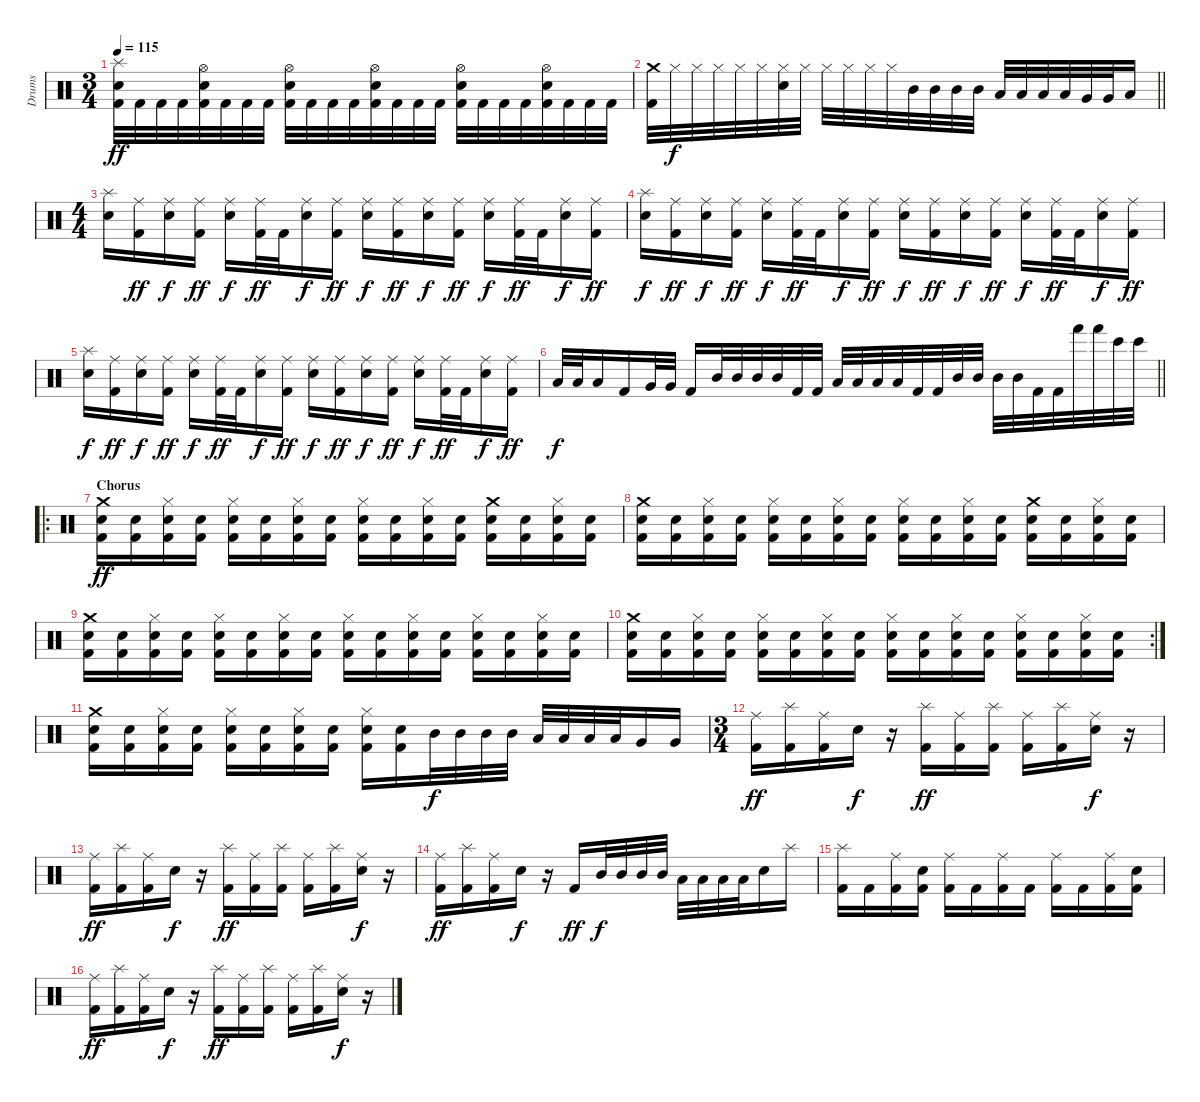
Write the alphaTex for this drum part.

\track ("Drums" "Drums") {instrument percussion}
\staff {score}
\articulation defaults
\ts (3 4)
\tempo 115
\clef neutral
\ks c
("Splash (hit)" "Electric Snare (hit)" "Kick (hit) 2").32{dy ff} "Kick (hit) 2".32 "Kick (hit) 2".32 "Kick (hit) 2".32 ("Hi-Hat (open)" "Electric Snare (hit)" "Kick (hit) 2").32 "Kick (hit) 2".32 "Kick (hit) 2".32 "Kick (hit) 2".32 ("Hi-Hat (open)" "Electric Snare (hit)" "Kick (hit) 2").32 "Kick (hit) 2".32 "Kick (hit) 2".32 "Kick (hit) 2".32 ("Hi-Hat (open)" "Electric Snare (hit)" "Kick (hit) 2").32 "Kick (hit) 2".32 "Kick (hit) 2".32 "Kick (hit) 2".32 ("Hi-Hat (open)" "Electric Snare (hit)" "Kick (hit) 2").32 "Kick (hit) 2".32 "Kick (hit) 2".32 "Kick (hit) 2".32 ("Hi-Hat (open)" "Electric Snare (hit)" "Kick (hit) 2").32 "Kick (hit) 2".32 "Kick (hit) 2".32 "Kick (hit) 2".32 |
\barLineRight lightlight
("Crash medium (hit)" "Kick (hit) 2").32 "Hi-Hat (closed)".32{dy f} "Hi-Hat (closed)".32 "Hi-Hat (closed)".32 "Hi-Hat (closed)".32 "Hi-Hat (closed)".32 ("Hi-Hat (closed)" "Electric Snare (hit)").32 "Hi-Hat (closed)".32 "Hi-Hat (closed)".32 "Hi-Hat (closed)".32 "Hi-Hat (closed)".32 "Hi-Hat (closed)".32 "Mid Tom (hit)".32 "Mid Tom (hit)".32 "Mid Tom (hit)".32 "Mid Tom (hit)".32 "Low Tom (hit)".32 "Low Tom (hit)".32 "Low Tom (hit)".32 "Low Tom (hit)".32 "Very Low Tom (hit)".32 "Very Low Tom (hit)".32 "Low Floor Tom (hit)".16 |
\ts (4 4)
("Splash (hit)" "Electric Snare (hit)").16 ("Ride (middle)" "Kick (hit) 2").16{dy ff} ("Ride (middle)" "Electric Snare (hit)").16{dy f} ("Ride (middle)" "Kick (hit) 2").16{dy ff} ("Ride (middle)" "Electric Snare (hit)").16{dy f} ("Ride (middle)" "Kick (hit) 2").32{dy ff} "Kick (hit) 2".32 ("Ride (middle)" "Electric Snare (hit)").16{dy f} ("Ride (middle)" "Kick (hit) 2").16{dy ff} ("Ride (middle)" "Electric Snare (hit)").16{dy f} ("Ride (middle)" "Kick (hit) 2").16{dy ff} ("Ride (middle)" "Electric Snare (hit)").16{dy f} ("Ride (middle)" "Kick (hit) 2").16{dy ff} ("Ride (middle)" "Electric Snare (hit)").16{dy f} ("Ride (middle)" "Kick (hit) 2").32{dy ff} "Kick (hit) 2".32 ("Ride (middle)" "Electric Snare (hit)").16{dy f} ("Ride (middle)" "Kick (hit) 2").16{dy ff} |
("Splash (hit)" "Electric Snare (hit)").16{dy f} ("Ride (middle)" "Kick (hit) 2").16{dy ff} ("Ride (middle)" "Electric Snare (hit)").16{dy f} ("Ride (middle)" "Kick (hit) 2").16{dy ff} ("Ride (middle)" "Electric Snare (hit)").16{dy f} ("Ride (middle)" "Kick (hit) 2").32{dy ff} "Kick (hit) 2".32 ("Ride (middle)" "Electric Snare (hit)").16{dy f} ("Ride (middle)" "Kick (hit) 2").16{dy ff} ("Ride (middle)" "Electric Snare (hit)").16{dy f} ("Ride (middle)" "Kick (hit) 2").16{dy ff} ("Ride (middle)" "Electric Snare (hit)").16{dy f} ("Ride (middle)" "Kick (hit) 2").16{dy ff} ("Ride (middle)" "Electric Snare (hit)").16{dy f} ("Ride (middle)" "Kick (hit) 2").32{dy ff} "Kick (hit) 2".32 ("Ride (middle)" "Electric Snare (hit)").16{dy f} ("Ride (middle)" "Kick (hit) 2").16{dy ff} |
("Splash (hit)" "Electric Snare (hit)").16{dy f} ("Ride (middle)" "Kick (hit) 2").16{dy ff} ("Ride (middle)" "Electric Snare (hit)").16{dy f} ("Ride (middle)" "Kick (hit) 2").16{dy ff} ("Ride (middle)" "Electric Snare (hit)").16{dy f} ("Ride (middle)" "Kick (hit) 2").32{dy ff} "Kick (hit) 2".32 ("Ride (middle)" "Electric Snare (hit)").16{dy f} ("Ride (middle)" "Kick (hit) 2").16{dy ff} ("Ride (middle)" "Electric Snare (hit)").16{dy f} ("Ride (middle)" "Kick (hit) 2").16{dy ff} ("Ride (middle)" "Electric Snare (hit)").16{dy f} ("Ride (middle)" "Kick (hit) 2").16{dy ff} ("Ride (middle)" "Electric Snare (hit)").16{dy f} ("Ride (middle)" "Kick (hit) 2").32{dy ff} "Kick (hit) 2".32 ("Ride (middle)" "Electric Snare (hit)").16{dy f} ("Ride (middle)" "Kick (hit) 2").16{dy ff} |
\barLineRight lightlight "Low Floor Tom (hit)".32{dy f} "Low Floor Tom (hit)".32 "Low Floor Tom (hit)".16 "Kick (hit) 2".16 "Very Low Tom (hit)".32 "Very Low Tom (hit)".32 "Kick (hit) 2".16 "Mid Tom (hit)".32 "Mid Tom (hit)".32 "Mid Tom (hit)".32 "Mid Tom (hit)".32 "Kick (hit) 2".32 "Kick (hit) 2".32 "Low Tom (hit)".32 "Low Tom (hit)".32 "Low Tom (hit)".32 "Low Tom (hit)".32 "Kick (hit) 2".32 "Kick (hit) 2".32 "Mid Tom (hit)".32 "Mid Tom (hit)".32 "Mid Tom (hit)".32 "Mid Tom (hit)".32 "Kick (hit) 2".32 "Kick (hit) 2".32 "Hand (hit)".32 "Hand (hit)".32 "Bongo High (hit)".32 "Bongo High (hit)".32
|
\ro
\section ("" "Chorus")
("Crash medium (hit)" "Electric Snare (hit)" "Kick (hit) 2").16{dy ff} ("Electric Snare (hit)" "Kick (hit) 2").16 ("Hi-Hat (closed)" "Electric Snare (hit)" "Kick (hit) 2").16 ("Electric Snare (hit)" "Kick (hit) 2").16 ("Hi-Hat (closed)" "Electric Snare (hit)" "Kick (hit) 2").16 ("Electric Snare (hit)" "Kick (hit) 2").16 ("Hi-Hat (closed)" "Electric Snare (hit)" "Kick (hit) 2").16 ("Electric Snare (hit)" "Kick (hit) 2").16 ("Hi-Hat (closed)" "Electric Snare (hit)" "Kick (hit) 2").16 ("Electric Snare (hit)" "Kick (hit) 2").16 ("Hi-Hat (closed)" "Electric Snare (hit)" "Kick (hit) 2").16 ("Electric Snare (hit)" "Kick (hit) 2").16 ("Crash medium (hit)" "Electric Snare (hit)" "Kick (hit) 2").16 ("Electric Snare (hit)" "Kick (hit) 2").16 ("Hi-Hat (closed)" "Electric Snare (hit)" "Kick (hit) 2").16 ("Electric Snare (hit)" "Kick (hit) 2").16 |
("Crash medium (hit)" "Electric Snare (hit)" "Kick (hit) 2").16 ("Electric Snare (hit)" "Kick (hit) 2").16 ("Hi-Hat (closed)" "Electric Snare (hit)" "Kick (hit) 2").16 ("Electric Snare (hit)" "Kick (hit) 2").16 ("Hi-Hat (closed)" "Electric Snare (hit)" "Kick (hit) 2").16 ("Electric Snare (hit)" "Kick (hit) 2").16 ("Hi-Hat (closed)" "Electric Snare (hit)" "Kick (hit) 2").16 ("Electric Snare (hit)" "Kick (hit) 2").16 ("Hi-Hat (closed)" "Electric Snare (hit)" "Kick (hit) 2").16 ("Electric Snare (hit)" "Kick (hit) 2").16 ("Hi-Hat (closed)" "Electric Snare (hit)" "Kick (hit) 2").16 ("Electric Snare (hit)" "Kick (hit) 2").16 ("Crash medium (hit)" "Electric Snare (hit)" "Kick (hit) 2").16 ("Electric Snare (hit)" "Kick (hit) 2").16 ("Hi-Hat (closed)" "Electric Snare (hit)" "Kick (hit) 2").16 ("Electric Snare (hit)" "Kick (hit) 2").16 |
("Crash medium (hit)" "Electric Snare (hit)" "Kick (hit) 2").16 ("Electric Snare (hit)" "Kick (hit) 2").16 ("Hi-Hat (closed)" "Electric Snare (hit)" "Kick (hit) 2").16 ("Electric Snare (hit)" "Kick (hit) 2").16 ("Hi-Hat (closed)" "Electric Snare (hit)" "Kick (hit) 2").16 ("Electric Snare (hit)" "Kick (hit) 2").16 ("Hi-Hat (closed)" "Electric Snare (hit)" "Kick (hit) 2").16 ("Electric Snare (hit)" "Kick (hit) 2").16 ("Hi-Hat (closed)" "Electric Snare (hit)" "Kick (hit) 2").16 ("Electric Snare (hit)" "Kick (hit) 2").16 ("Hi-Hat (closed)" "Electric Snare (hit)" "Kick (hit) 2").16 ("Electric Snare (hit)" "Kick (hit) 2").16 ("Hi-Hat (closed)" "Electric Snare (hit)" "Kick (hit) 2").16 ("Electric Snare (hit)" "Kick (hit) 2").16 ("Hi-Hat (closed)" "Electric Snare (hit)" "Kick (hit) 2").16 ("Electric Snare (hit)" "Kick (hit) 2").16 |
\rc 2
("Crash medium (hit)" "Electric Snare (hit)" "Kick (hit) 2").16 ("Electric Snare (hit)" "Kick (hit) 2").16 ("Hi-Hat (closed)" "Electric Snare (hit)" "Kick (hit) 2").16 ("Electric Snare (hit)" "Kick (hit) 2").16 ("Hi-Hat (closed)" "Electric Snare (hit)" "Kick (hit) 2").16 ("Electric Snare (hit)" "Kick (hit) 2").16 ("Hi-Hat (closed)" "Electric Snare (hit)" "Kick (hit) 2").16 ("Electric Snare (hit)" "Kick (hit) 2").16 ("Hi-Hat (closed)" "Electric Snare (hit)" "Kick (hit) 2").16 ("Electric Snare (hit)" "Kick (hit) 2").16 ("Hi-Hat (closed)" "Electric Snare (hit)" "Kick (hit) 2").16 ("Electric Snare (hit)" "Kick (hit) 2").16 ("Hi-Hat (closed)" "Electric Snare (hit)" "Kick (hit) 2").16 ("Electric Snare (hit)" "Kick (hit) 2").16 ("Hi-Hat (closed)" "Electric Snare (hit)" "Kick (hit) 2").16 ("Electric Snare (hit)" "Kick (hit) 2").16 |
("Crash medium (hit)" "Electric Snare (hit)" "Kick (hit) 2").16 ("Electric Snare (hit)" "Kick (hit) 2").16 ("Hi-Hat (closed)" "Electric Snare (hit)" "Kick (hit) 2").16 ("Electric Snare (hit)" "Kick (hit) 2").16 ("Hi-Hat (closed)" "Electric Snare (hit)" "Kick (hit) 2").16 ("Electric Snare (hit)" "Kick (hit) 2").16 ("Hi-Hat (closed)" "Electric Snare (hit)" "Kick (hit) 2").16 ("Electric Snare (hit)" "Kick (hit) 2").16 ("Hi-Hat (closed)" "Electric Snare (hit)" "Kick (hit) 2").16 ("Electric Snare (hit)" "Kick (hit) 2").16 "Mid Tom (hit)".32{dy f} "Mid Tom (hit)".32 "Mid Tom (hit)".32 "Mid Tom (hit)".32 "Low Tom (hit)".32 "Low Tom (hit)".32 "Low Tom (hit)".32 "Low Tom (hit)".32 "Very Low Tom (hit)".16 "Very Low Tom (hit)".16 |
\ts (3 4)
("Ride (middle)" "Kick (hit) 2").16{dy ff} ("Splash (hit)" "Kick (hit) 2").16 ("Ride (middle)" "Kick (hit) 2").16 "Electric Snare (hit)".16{dy f} r.16 ("Splash (hit)" "Kick (hit) 2").16{dy ff} ("Ride (middle)" "Kick (hit) 2").16 ("Splash (hit)" "Kick (hit) 2").16 ("Ride (middle)" "Kick (hit) 2").16 ("Splash (hit)" "Kick (hit) 2").16 ("Ride (middle)" "Electric Snare (hit)").16{dy f} r.16 |
("Ride (middle)" "Kick (hit) 2").16{dy ff} ("Splash (hit)" "Kick (hit) 2").16 ("Ride (middle)" "Kick (hit) 2").16 "Electric Snare (hit)".16{dy f} r.16 ("Splash (hit)" "Kick (hit) 2").16{dy ff} ("Ride (middle)" "Kick (hit) 2").16 ("Splash (hit)" "Kick (hit) 2").16 ("Ride (middle)" "Kick (hit) 2").16 ("Splash (hit)" "Kick (hit) 2").16 ("Ride (middle)" "Electric Snare (hit)").16{dy f} r.16 |
("Ride (middle)" "Kick (hit) 2").16{dy ff} ("Splash (hit)" "Kick (hit) 2").16 ("Ride (middle)" "Kick (hit) 2").16 "Electric Snare (hit)".16{dy f} r.16 "Kick (hit) 2".16{dy ff} "Mid Tom (hit)".32{dy f} "Mid Tom (hit)".32 "Mid Tom (hit)".32 "Mid Tom (hit)".32 "Low Tom (hit)".32 "Low Tom (hit)".32 "Low Tom (hit)".32 "Low Tom (hit)".32 "Electric Snare (hit)".16 "Splash (hit)".16 |
("Splash (hit)" "Kick (hit) 2").16 "Kick (hit) 2".16 ("Ride (middle)" "Kick (hit) 2").16 ("Electric Snare (hit)" "Kick (hit) 2").16 ("Ride (middle)" "Kick (hit) 2").16 "Kick (hit) 2".16 ("Ride (middle)" "Kick (hit) 2").16 "Kick (hit) 2".16 ("Ride (middle)" "Kick (hit) 2").16 "Kick (hit) 2".16 ("Ride (middle)" "Kick (hit) 2").16 ("Electric Snare (hit)" "Kick (hit) 2").16 |
("Ride (middle)" "Kick (hit) 2").16{dy ff} ("Splash (hit)" "Kick (hit) 2").16 ("Ride (middle)" "Kick (hit) 2").16 "Electric Snare (hit)".16{dy f} r.16 ("Splash (hit)" "Kick (hit) 2").16{dy ff} ("Ride (middle)" "Kick (hit) 2").16 ("Splash (hit)" "Kick (hit) 2").16 ("Ride (middle)" "Kick (hit) 2").16 ("Splash (hit)" "Kick (hit) 2").16 ("Ride (middle)" "Electric Snare (hit)").16{dy f} r.16
